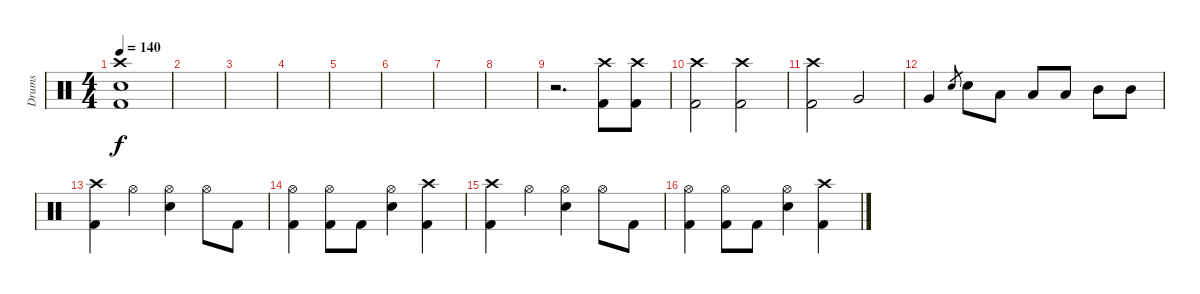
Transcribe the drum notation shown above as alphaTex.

\track ("Drums" "Drums") {instrument percussion}
\staff {score}
\articulation defaults
\ts (4 4)
\tempo 140
\clef neutral
\ks c
("Crash high (hit)" "Electric Snare (hit)" "Kick (hit) 2").1{dy f} |
|
|
|
|
|
|
|
r.2{d} ("Crash high (hit)" "Kick (hit) 2").8 ("Crash high (hit)" "Kick (hit) 2").8 |
("Crash high (hit)" "Kick (hit) 2").2 ("Crash high (hit)" "Kick (hit) 2").2 |
("Crash high (hit)" "Kick (hit) 2").2 "Very Low Tom (hit)".2 |
"Very Low Tom (hit)".4 "Electric Snare (hit)".8{gr} "Electric Snare (hit)".8 "Low Tom (hit)".8 "Low Tom (hit)".8 "Low Tom (hit)".8 "Mid Tom (hit)".8 "Mid Tom (hit)".8 |
("Crash high (hit)" "Kick (hit) 2").4 "Hi-Hat (open)".4 ("Hi-Hat (open)" "Electric Snare (hit)").4 "Hi-Hat (open)".8 "Kick (hit) 2".8 |
("Hi-Hat (open)" "Kick (hit) 2").4 ("Hi-Hat (open)" "Kick (hit) 2").8 "Kick (hit) 2".8 ("Hi-Hat (open)" "Electric Snare (hit)").4 ("Crash high (hit)" "Kick (hit) 2").4 |
("Crash high (hit)" "Kick (hit) 2").4 "Hi-Hat (open)".4 ("Hi-Hat (open)" "Electric Snare (hit)").4 "Hi-Hat (open)".8 "Kick (hit) 2".8 |
("Hi-Hat (open)" "Kick (hit) 2").4 ("Hi-Hat (open)" "Kick (hit) 2").8 "Kick (hit) 2".8 ("Hi-Hat (open)" "Electric Snare (hit)").4 ("Crash high (hit)" "Kick (hit) 2").4
